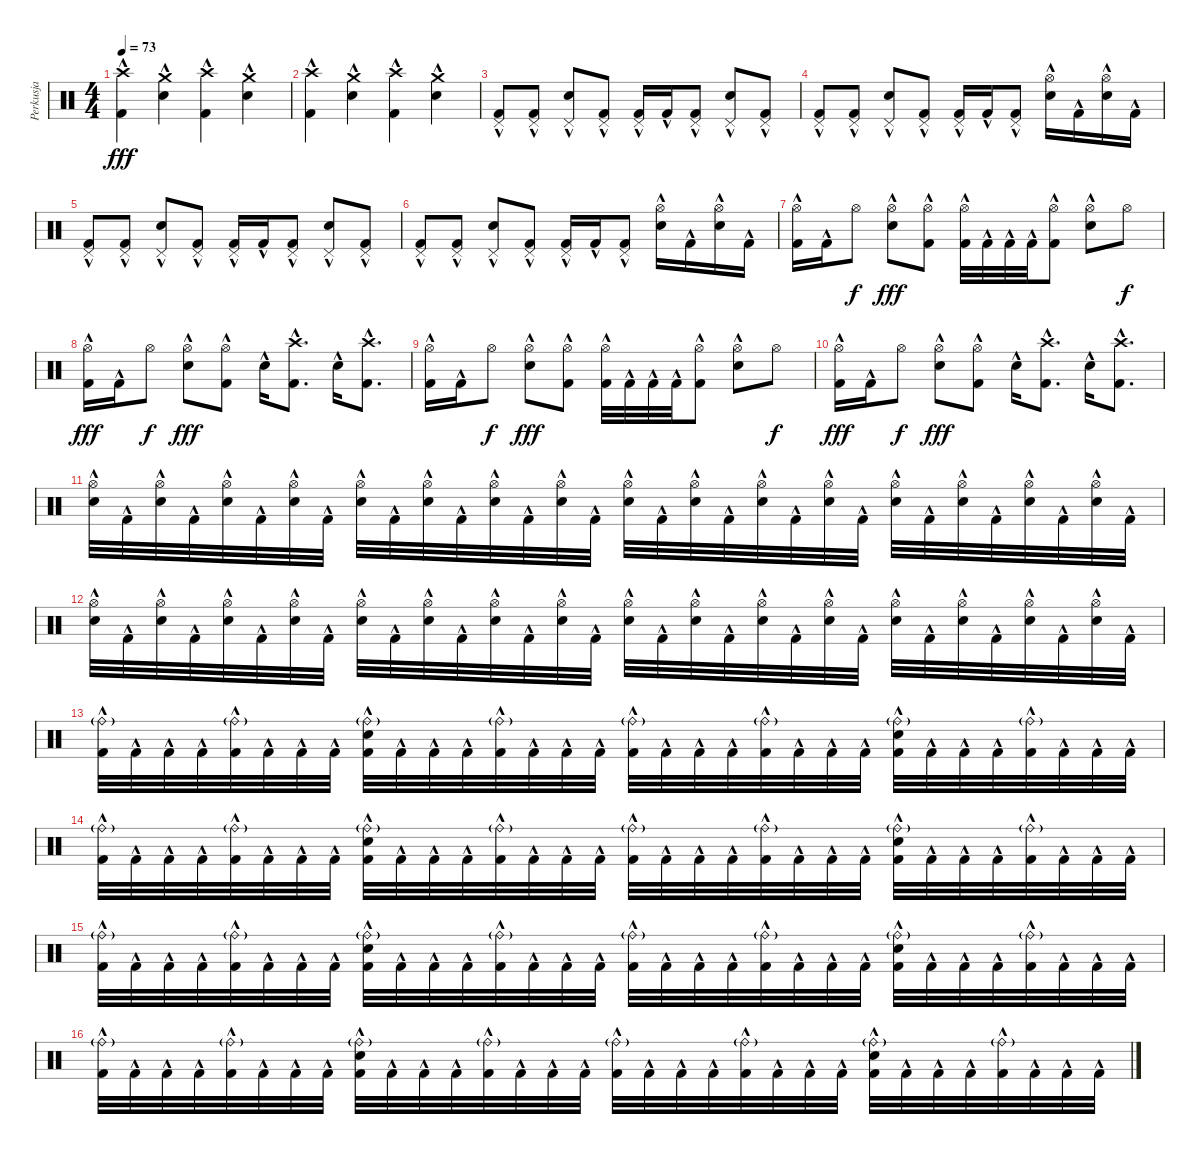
\track ("Perkusja" "Perkusja") {instrument percussion}
\staff {score}
\articulation defaults
\ts (4 4)
\tempo 73
\clef neutral
\ks c
("Crash high (hit)" "Kick (hit) 2"{hac}).4{dy fff} ("Crash medium (hit)" "Electric Snare (hit)"{hac}).4 ("Crash high (hit)" "Kick (hit) 2"{hac}).4 ("Crash medium (hit)" "Electric Snare (hit)"{hac}).4 |
("Crash high (hit)" "Kick (hit) 2"{hac}).4 ("Crash medium (hit)" "Electric Snare (hit)"{hac}).4 ("Crash high (hit)" "Kick (hit) 2"{hac}).4 ("Crash medium (hit)" "Electric Snare (hit)"{hac}).4 |
("Pedal Hi-Hat (hit)" "Kick (hit) 2"{hac}).8 ("Pedal Hi-Hat (hit)" "Kick (hit) 2"{hac}).8 ("Pedal Hi-Hat (hit)" "Electric Snare (hit)"{hac}).8 ("Pedal Hi-Hat (hit)" "Kick (hit) 2"{hac}).8 ("Pedal Hi-Hat (hit)" "Kick (hit) 2"{hac}).16 "Kick (hit) 2"{hac}.16 ("Pedal Hi-Hat (hit)" "Kick (hit) 2"{hac}).8 ("Pedal Hi-Hat (hit)" "Electric Snare (hit)"{hac}).8 ("Pedal Hi-Hat (hit)" "Kick (hit) 2"{hac}).8 |
("Pedal Hi-Hat (hit)" "Kick (hit) 2"{hac}).8 ("Pedal Hi-Hat (hit)" "Kick (hit) 2"{hac}).8 ("Pedal Hi-Hat (hit)" "Electric Snare (hit)"{hac}).8 ("Pedal Hi-Hat (hit)" "Kick (hit) 2"{hac}).8 ("Pedal Hi-Hat (hit)" "Kick (hit) 2"{hac}).16 "Kick (hit) 2"{hac}.16 ("Pedal Hi-Hat (hit)" "Kick (hit) 2"{hac}).8 ("Hi-Hat (open)" "Electric Snare (hit)"{hac}).16 "Kick (hit) 2"{hac}.16 ("Hi-Hat (open)" "Electric Snare (hit)"{hac}).16 "Kick (hit) 2"{hac}.16 |
("Pedal Hi-Hat (hit)" "Kick (hit) 2"{hac}).8 ("Pedal Hi-Hat (hit)" "Kick (hit) 2"{hac}).8 ("Pedal Hi-Hat (hit)" "Electric Snare (hit)"{hac}).8 ("Pedal Hi-Hat (hit)" "Kick (hit) 2"{hac}).8 ("Pedal Hi-Hat (hit)" "Kick (hit) 2"{hac}).16 "Kick (hit) 2"{hac}.16 ("Pedal Hi-Hat (hit)" "Kick (hit) 2"{hac}).8 ("Pedal Hi-Hat (hit)" "Electric Snare (hit)"{hac}).8 ("Pedal Hi-Hat (hit)" "Kick (hit) 2"{hac}).8 |
("Pedal Hi-Hat (hit)" "Kick (hit) 2"{hac}).8 ("Pedal Hi-Hat (hit)" "Kick (hit) 2"{hac}).8 ("Pedal Hi-Hat (hit)" "Electric Snare (hit)"{hac}).8 ("Pedal Hi-Hat (hit)" "Kick (hit) 2"{hac}).8 ("Pedal Hi-Hat (hit)" "Kick (hit) 2"{hac}).16 "Kick (hit) 2"{hac}.16 ("Pedal Hi-Hat (hit)" "Kick (hit) 2"{hac}).8 ("Hi-Hat (open)" "Electric Snare (hit)"{hac}).16 "Kick (hit) 2"{hac}.16 ("Hi-Hat (open)" "Electric Snare (hit)"{hac}).16 "Kick (hit) 2"{hac}.16 |
("Hi-Hat (open)" "Kick (hit) 2"{hac}).16 "Kick (hit) 2"{hac}.16 "Hi-Hat (open)".8{dy f} ("Hi-Hat (open)" "Electric Snare (hit)"{hac}).8{dy fff} ("Hi-Hat (open)" "Kick (hit) 2"{hac}).8 ("Hi-Hat (open)" "Kick (hit) 2"{hac}).32 "Kick (hit) 2"{hac}.32 "Kick (hit) 2"{hac}.32 "Kick (hit) 2"{hac}.32 ("Hi-Hat (open)" "Kick (hit) 2"{hac}).8 ("Hi-Hat (open)" "Electric Snare (hit)"{hac}).8 "Hi-Hat (open)".8{dy f} |
("Hi-Hat (open)" "Kick (hit) 2"{hac}).16{dy fff} "Kick (hit) 2"{hac}.16 "Hi-Hat (open)".8{dy f} ("Hi-Hat (open)" "Electric Snare (hit)"{hac}).8{dy fff} ("Hi-Hat (open)" "Kick (hit) 2"{hac}).8 "Electric Snare (hit)"{hac}.16 ("Crash high (hit)" "Kick (hit) 2"{hac}).8{d} "Electric Snare (hit)"{hac}.16 ("Crash high (hit)" "Kick (hit) 2"{hac}).8{d} |
("Hi-Hat (open)" "Kick (hit) 2"{hac}).16 "Kick (hit) 2"{hac}.16 "Hi-Hat (open)".8{dy f} ("Hi-Hat (open)" "Electric Snare (hit)"{hac}).8{dy fff} ("Hi-Hat (open)" "Kick (hit) 2"{hac}).8 ("Hi-Hat (open)" "Kick (hit) 2"{hac}).32 "Kick (hit) 2"{hac}.32 "Kick (hit) 2"{hac}.32 "Kick (hit) 2"{hac}.32 ("Hi-Hat (open)" "Kick (hit) 2"{hac}).8 ("Hi-Hat (open)" "Electric Snare (hit)"{hac}).8 "Hi-Hat (open)".8{dy f} |
("Hi-Hat (open)" "Kick (hit) 2"{hac}).16{dy fff} "Kick (hit) 2"{hac}.16 "Hi-Hat (open)".8{dy f} ("Hi-Hat (open)" "Electric Snare (hit)"{hac}).8{dy fff} ("Hi-Hat (open)" "Kick (hit) 2"{hac}).8 "Electric Snare (hit)"{hac}.16 ("Crash high (hit)" "Kick (hit) 2"{hac}).8{d} "Electric Snare (hit)"{hac}.16 ("Crash high (hit)" "Kick (hit) 2"{hac}).8{d} |
("Hi-Hat (open)" "Electric Snare (hit)"{hac}).32 "Kick (hit) 2"{hac}.32 ("Hi-Hat (open)" "Electric Snare (hit)"{hac}).32 "Kick (hit) 2"{hac}.32 ("Hi-Hat (open)" "Electric Snare (hit)"{hac}).32 "Kick (hit) 2"{hac}.32 ("Hi-Hat (open)" "Electric Snare (hit)"{hac}).32 "Kick (hit) 2"{hac}.32 ("Hi-Hat (open)" "Electric Snare (hit)"{hac}).32 "Kick (hit) 2"{hac}.32 ("Hi-Hat (open)" "Electric Snare (hit)"{hac}).32 "Kick (hit) 2"{hac}.32 ("Hi-Hat (open)" "Electric Snare (hit)"{hac}).32 "Kick (hit) 2"{hac}.32 ("Hi-Hat (open)" "Electric Snare (hit)"{hac}).32 "Kick (hit) 2"{hac}.32 ("Hi-Hat (open)" "Electric Snare (hit)"{hac}).32 "Kick (hit) 2"{hac}.32 ("Hi-Hat (open)" "Electric Snare (hit)"{hac}).32 "Kick (hit) 2"{hac}.32 ("Hi-Hat (open)" "Electric Snare (hit)"{hac}).32 "Kick (hit) 2"{hac}.32 ("Hi-Hat (open)" "Electric Snare (hit)"{hac}).32 "Kick (hit) 2"{hac}.32 ("Hi-Hat (open)" "Electric Snare (hit)"{hac}).32 "Kick (hit) 2"{hac}.32 ("Hi-Hat (open)" "Electric Snare (hit)"{hac}).32 "Kick (hit) 2"{hac}.32 ("Hi-Hat (open)" "Electric Snare (hit)"{hac}).32 "Kick (hit) 2"{hac}.32 ("Hi-Hat (open)" "Electric Snare (hit)"{hac}).32 "Kick (hit) 2"{hac}.32 |
("Hi-Hat (open)" "Electric Snare (hit)"{hac}).32 "Kick (hit) 2"{hac}.32 ("Hi-Hat (open)" "Electric Snare (hit)"{hac}).32 "Kick (hit) 2"{hac}.32 ("Hi-Hat (open)" "Electric Snare (hit)"{hac}).32 "Kick (hit) 2"{hac}.32 ("Hi-Hat (open)" "Electric Snare (hit)"{hac}).32 "Kick (hit) 2"{hac}.32 ("Hi-Hat (open)" "Electric Snare (hit)"{hac}).32 "Kick (hit) 2"{hac}.32 ("Hi-Hat (open)" "Electric Snare (hit)"{hac}).32 "Kick (hit) 2"{hac}.32 ("Hi-Hat (open)" "Electric Snare (hit)"{hac}).32 "Kick (hit) 2"{hac}.32 ("Hi-Hat (open)" "Electric Snare (hit)"{hac}).32 "Kick (hit) 2"{hac}.32 ("Hi-Hat (open)" "Electric Snare (hit)"{hac}).32 "Kick (hit) 2"{hac}.32 ("Hi-Hat (open)" "Electric Snare (hit)"{hac}).32 "Kick (hit) 2"{hac}.32 ("Hi-Hat (open)" "Electric Snare (hit)"{hac}).32 "Kick (hit) 2"{hac}.32 ("Hi-Hat (open)" "Electric Snare (hit)"{hac}).32 "Kick (hit) 2"{hac}.32 ("Hi-Hat (open)" "Electric Snare (hit)"{hac}).32 "Kick (hit) 2"{hac}.32 ("Hi-Hat (open)" "Electric Snare (hit)"{hac}).32 "Kick (hit) 2"{hac}.32 ("Hi-Hat (open)" "Electric Snare (hit)"{hac}).32 "Kick (hit) 2"{hac}.32 ("Hi-Hat (open)" "Electric Snare (hit)"{hac}).32 "Kick (hit) 2"{hac}.32 |
("Ride (bell)"{g} "Kick (hit) 2"{hac}).32 "Kick (hit) 2"{hac}.32 "Kick (hit) 2"{hac}.32 "Kick (hit) 2"{hac}.32 ("Ride (bell)"{g} "Kick (hit) 2"{hac}).32 "Kick (hit) 2"{hac}.32 "Kick (hit) 2"{hac}.32 "Kick (hit) 2"{hac}.32 ("Ride (bell)"{g} "Electric Snare (hit)"{hac} "Kick (hit) 2"{hac}).32 "Kick (hit) 2"{hac}.32 "Kick (hit) 2"{hac}.32 "Kick (hit) 2"{hac}.32 ("Ride (bell)"{g} "Kick (hit) 2"{hac}).32 "Kick (hit) 2"{hac}.32 "Kick (hit) 2"{hac}.32 "Kick (hit) 2"{hac}.32 ("Ride (bell)"{g} "Kick (hit) 2"{hac}).32 "Kick (hit) 2"{hac}.32 "Kick (hit) 2"{hac}.32 "Kick (hit) 2"{hac}.32 ("Ride (bell)"{g} "Kick (hit) 2"{hac}).32 "Kick (hit) 2"{hac}.32 "Kick (hit) 2"{hac}.32 "Kick (hit) 2"{hac}.32 ("Ride (bell)"{g} "Electric Snare (hit)"{hac} "Kick (hit) 2"{hac}).32 "Kick (hit) 2"{hac}.32 "Kick (hit) 2"{hac}.32 "Kick (hit) 2"{hac}.32 ("Ride (bell)"{g} "Kick (hit) 2"{hac}).32 "Kick (hit) 2"{hac}.32 "Kick (hit) 2"{hac}.32 "Kick (hit) 2"{hac}.32 |
("Ride (bell)"{g} "Kick (hit) 2"{hac}).32 "Kick (hit) 2"{hac}.32 "Kick (hit) 2"{hac}.32 "Kick (hit) 2"{hac}.32 ("Ride (bell)"{g} "Kick (hit) 2"{hac}).32 "Kick (hit) 2"{hac}.32 "Kick (hit) 2"{hac}.32 "Kick (hit) 2"{hac}.32 ("Ride (bell)"{g} "Electric Snare (hit)"{hac} "Kick (hit) 2"{hac}).32 "Kick (hit) 2"{hac}.32 "Kick (hit) 2"{hac}.32 "Kick (hit) 2"{hac}.32 ("Ride (bell)"{g} "Kick (hit) 2"{hac}).32 "Kick (hit) 2"{hac}.32 "Kick (hit) 2"{hac}.32 "Kick (hit) 2"{hac}.32 ("Ride (bell)"{g} "Kick (hit) 2"{hac}).32 "Kick (hit) 2"{hac}.32 "Kick (hit) 2"{hac}.32 "Kick (hit) 2"{hac}.32 ("Ride (bell)"{g} "Kick (hit) 2"{hac}).32 "Kick (hit) 2"{hac}.32 "Kick (hit) 2"{hac}.32 "Kick (hit) 2"{hac}.32 ("Ride (bell)"{g} "Electric Snare (hit)"{hac} "Kick (hit) 2"{hac}).32 "Kick (hit) 2"{hac}.32 "Kick (hit) 2"{hac}.32 "Kick (hit) 2"{hac}.32 ("Ride (bell)"{g} "Kick (hit) 2"{hac}).32 "Kick (hit) 2"{hac}.32 "Kick (hit) 2"{hac}.32 "Kick (hit) 2"{hac}.32 |
("Ride (bell)"{g} "Kick (hit) 2"{hac}).32 "Kick (hit) 2"{hac}.32 "Kick (hit) 2"{hac}.32 "Kick (hit) 2"{hac}.32 ("Ride (bell)"{g} "Kick (hit) 2"{hac}).32 "Kick (hit) 2"{hac}.32 "Kick (hit) 2"{hac}.32 "Kick (hit) 2"{hac}.32 ("Ride (bell)"{g} "Electric Snare (hit)"{hac} "Kick (hit) 2"{hac}).32 "Kick (hit) 2"{hac}.32 "Kick (hit) 2"{hac}.32 "Kick (hit) 2"{hac}.32 ("Ride (bell)"{g} "Kick (hit) 2"{hac}).32 "Kick (hit) 2"{hac}.32 "Kick (hit) 2"{hac}.32 "Kick (hit) 2"{hac}.32 ("Ride (bell)"{g} "Kick (hit) 2"{hac}).32 "Kick (hit) 2"{hac}.32 "Kick (hit) 2"{hac}.32 "Kick (hit) 2"{hac}.32 ("Ride (bell)"{g} "Kick (hit) 2"{hac}).32 "Kick (hit) 2"{hac}.32 "Kick (hit) 2"{hac}.32 "Kick (hit) 2"{hac}.32 ("Ride (bell)"{g} "Electric Snare (hit)"{hac} "Kick (hit) 2"{hac}).32 "Kick (hit) 2"{hac}.32 "Kick (hit) 2"{hac}.32 "Kick (hit) 2"{hac}.32 ("Ride (bell)"{g} "Kick (hit) 2"{hac}).32 "Kick (hit) 2"{hac}.32 "Kick (hit) 2"{hac}.32 "Kick (hit) 2"{hac}.32 |
("Ride (bell)"{g} "Kick (hit) 2"{hac}).32 "Kick (hit) 2"{hac}.32 "Kick (hit) 2"{hac}.32 "Kick (hit) 2"{hac}.32 ("Ride (bell)"{g} "Kick (hit) 2"{hac}).32 "Kick (hit) 2"{hac}.32 "Kick (hit) 2"{hac}.32 "Kick (hit) 2"{hac}.32 ("Ride (bell)"{g} "Electric Snare (hit)"{hac} "Kick (hit) 2"{hac}).32 "Kick (hit) 2"{hac}.32 "Kick (hit) 2"{hac}.32 "Kick (hit) 2"{hac}.32 ("Ride (bell)"{g} "Kick (hit) 2"{hac}).32 "Kick (hit) 2"{hac}.32 "Kick (hit) 2"{hac}.32 "Kick (hit) 2"{hac}.32 ("Ride (bell)"{g} "Kick (hit) 2"{hac}).32 "Kick (hit) 2"{hac}.32 "Kick (hit) 2"{hac}.32 "Kick (hit) 2"{hac}.32 ("Ride (bell)"{g} "Kick (hit) 2"{hac}).32 "Kick (hit) 2"{hac}.32 "Kick (hit) 2"{hac}.32 "Kick (hit) 2"{hac}.32 ("Ride (bell)"{g} "Electric Snare (hit)"{hac} "Kick (hit) 2"{hac}).32 "Kick (hit) 2"{hac}.32 "Kick (hit) 2"{hac}.32 "Kick (hit) 2"{hac}.32 ("Ride (bell)"{g} "Kick (hit) 2"{hac}).32 "Kick (hit) 2"{hac}.32 "Kick (hit) 2"{hac}.32 "Kick (hit) 2"{hac}.32
